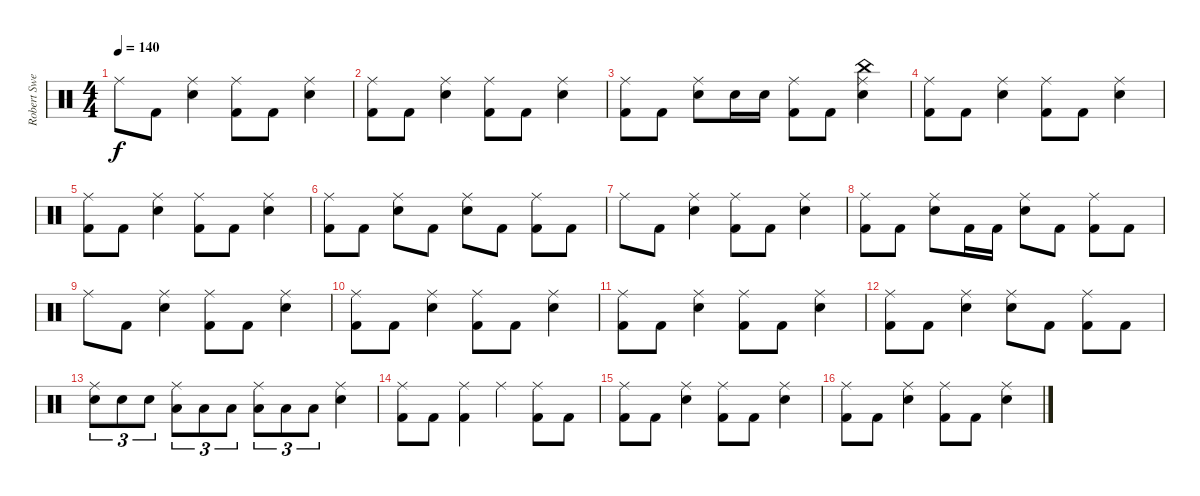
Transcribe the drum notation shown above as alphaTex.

\track ("Robert Sweet" "Robert Swe") {instrument percussion}
\staff {score}
\articulation defaults
\ts (4 4)
\tempo 140
\clef neutral
\ks c "Ride (middle)".8{dy f} "Kick (hit) 2".8
("Electric Snare (hit)" "Ride (middle)").4 ("Kick (hit) 2" "Ride (middle)").8 "Kick (hit) 2".8 ("Electric Snare (hit)" "Ride (middle)").4 |
("Kick (hit) 2" "Ride (middle)").8 "Kick (hit) 2".8 ("Electric Snare (hit)" "Ride (middle)").4 ("Kick (hit) 2" "Ride (middle)").8 "Kick (hit) 2".8 ("Electric Snare (hit)" "Ride (middle)").4 |
("Kick (hit) 2" "Ride (middle)").8 "Kick (hit) 2".8 ("Electric Snare (hit)" "Ride (middle)").8 "Electric Snare (hit)".16 "Electric Snare (hit)".16 ("Kick (hit) 2" "Ride (middle)").8 "Kick (hit) 2".8 ("Electric Snare (hit)" "China (hit)" "Ride (middle)").4 |
("Kick (hit) 2" "Ride (middle)").8 "Kick (hit) 2".8 ("Electric Snare (hit)" "Ride (middle)").4 ("Kick (hit) 2" "Ride (middle)").8 "Kick (hit) 2".8 ("Electric Snare (hit)" "Ride (middle)").4 |
("Kick (hit) 2" "Ride (middle)").8 "Kick (hit) 2".8 ("Electric Snare (hit)" "Ride (middle)").4 ("Kick (hit) 2" "Ride (middle)").8 "Kick (hit) 2".8 ("Electric Snare (hit)" "Ride (middle)").4 |
("Kick (hit) 2" "Ride (middle)").8 "Kick (hit) 2".8 ("Electric Snare (hit)" "Ride (middle)").8 "Kick (hit) 2".8 ("Electric Snare (hit)" "Ride (middle)").8 "Kick (hit) 2".8 ("Kick (hit) 2" "Ride (middle)").8 "Kick (hit) 2".8 |
"Ride (middle)".8 "Kick (hit) 2".8 ("Electric Snare (hit)" "Ride (middle)").4 ("Kick (hit) 2" "Ride (middle)").8 "Kick (hit) 2".8 ("Electric Snare (hit)" "Ride (middle)").4 |
("Kick (hit) 2" "Ride (middle)").8 "Kick (hit) 2".8 ("Electric Snare (hit)" "Ride (middle)").8 "Kick (hit) 2".16 "Kick (hit) 2".16 ("Electric Snare (hit)" "Ride (middle)").8 "Kick (hit) 2".8 ("Kick (hit) 2" "Ride (middle)").8 "Kick (hit) 2".8 |
"Ride (middle)".8 "Kick (hit) 2".8 ("Electric Snare (hit)" "Ride (middle)").4 ("Kick (hit) 2" "Ride (middle)").8 "Kick (hit) 2".8 ("Electric Snare (hit)" "Ride (middle)").4 |
("Kick (hit) 2" "Ride (middle)").8 "Kick (hit) 2".8 ("Electric Snare (hit)" "Ride (middle)").4 ("Kick (hit) 2" "Ride (middle)").8 "Kick (hit) 2".8 ("Electric Snare (hit)" "Ride (middle)").4 |
("Kick (hit) 2" "Ride (middle)").8 "Kick (hit) 2".8 ("Electric Snare (hit)" "Ride (middle)").4 ("Kick (hit) 2" "Ride (middle)").8 "Kick (hit) 2".8 ("Electric Snare (hit)" "Ride (middle)").4 |
("Kick (hit) 2" "Ride (middle)").8 "Kick (hit) 2".8 ("Electric Snare (hit)" "Ride (middle)").4 ("Electric Snare (hit)" "Ride (middle)").8 "Kick (hit) 2".8 ("Kick (hit) 2" "Ride (middle)").8 "Kick (hit) 2".8 |
("Electric Snare (hit)" "Ride (middle)").8{tu (3 2)} "Electric Snare (hit)".8{tu (3 2)} "Electric Snare (hit)".8{tu (3 2)} ("Low Floor Tom (hit)" "Ride (middle)").8{tu (3 2)} "Low Floor Tom (hit)".8{tu (3 2)} "Low Floor Tom (hit)".8{tu (3 2)} ("Low Floor Tom (hit)" "Ride (middle)").8{tu (3 2)} "Low Floor Tom (hit)".8{tu (3 2)} "Low Floor Tom (hit)".8{tu (3 2)} ("Electric Snare (hit)" "Ride (middle)").4 |
("Kick (hit) 2" "Ride (middle)").8 "Kick (hit) 2".8 ("Kick (hit) 2" "Ride (middle)").4 "Ride (middle)".4 ("Kick (hit) 2" "Ride (middle)").8 "Kick (hit) 2".8 |
("Kick (hit) 2" "Ride (middle)").8 "Kick (hit) 2".8 ("Electric Snare (hit)" "Ride (middle)").4 ("Kick (hit) 2" "Ride (middle)").8 "Kick (hit) 2".8 ("Electric Snare (hit)" "Ride (middle)").4 |
("Kick (hit) 2" "Ride (middle)").8 "Kick (hit) 2".8 ("Electric Snare (hit)" "Ride (middle)").4 ("Kick (hit) 2" "Ride (middle)").8 "Kick (hit) 2".8 ("Electric Snare (hit)" "Ride (middle)").4
